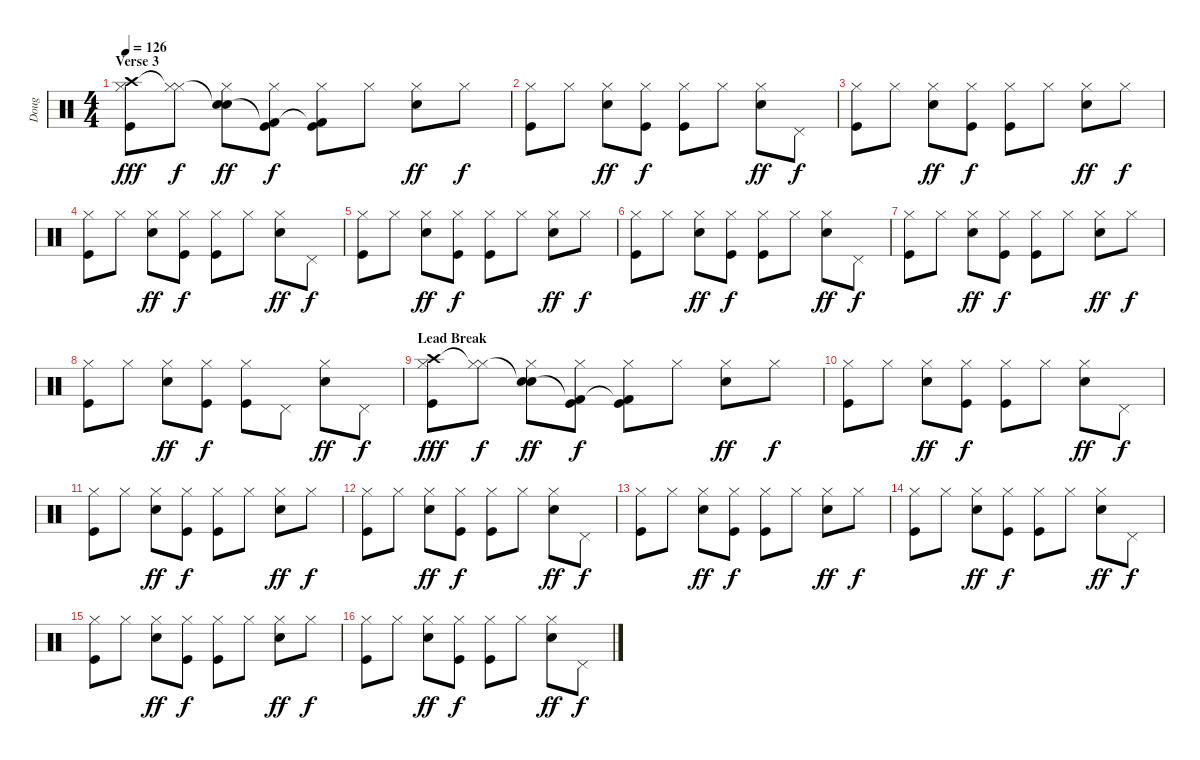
\track ("Doug" "Doug") {instrument percussion}
\staff {score}
\articulation defaults
\ts (4 4)
\section ("" "Verse 3")
\tempo 126
\clef neutral
\ks c
("Crash high (hit)" "Hi-Hat (closed)" "Kick (hit)").8{dy fff} ("Hi-Hat (closed)"{t} "Hi-Hat (closed)").8{dy f} ("Snare (hit) 2"{t} "Hi-Hat (closed)" "Snare (hit) 2").8{dy ff} ("Kick (hit) 2"{t} "Hi-Hat (closed)" "Kick (hit)").8{dy f} ("Kick (hit) 2"{t} "Hi-Hat (closed)" "Kick (hit)").8 "Hi-Hat (closed)".8 ("Hi-Hat (closed)" "Snare (hit) 2").8{dy ff} "Hi-Hat (closed)".8{dy f} |
("Hi-Hat (closed)" "Kick (hit)").8 "Hi-Hat (closed)".8 ("Hi-Hat (closed)" "Snare (hit) 2").8{dy ff} ("Hi-Hat (closed)" "Kick (hit)").8{dy f} ("Hi-Hat (closed)" "Kick (hit)").8 "Hi-Hat (closed)".8 ("Hi-Hat (closed)" "Snare (hit) 2").8{dy ff} "Pedal Hi-Hat (hit)".8{dy f} |
("Hi-Hat (closed)" "Kick (hit)").8 "Hi-Hat (closed)".8 ("Hi-Hat (closed)" "Snare (hit) 2").8{dy ff} ("Hi-Hat (closed)" "Kick (hit)").8{dy f} ("Hi-Hat (closed)" "Kick (hit)").8 "Hi-Hat (closed)".8 ("Hi-Hat (closed)" "Snare (hit) 2").8{dy ff} "Hi-Hat (closed)".8{dy f} |
("Hi-Hat (closed)" "Kick (hit)").8 "Hi-Hat (closed)".8 ("Hi-Hat (closed)" "Snare (hit) 2").8{dy ff} ("Hi-Hat (closed)" "Kick (hit)").8{dy f} ("Hi-Hat (closed)" "Kick (hit)").8 "Hi-Hat (closed)".8 ("Hi-Hat (closed)" "Snare (hit) 2").8{dy ff} "Pedal Hi-Hat (hit)".8{dy f} |
("Hi-Hat (closed)" "Kick (hit)").8 "Hi-Hat (closed)".8 ("Hi-Hat (closed)" "Snare (hit) 2").8{dy ff} ("Hi-Hat (closed)" "Kick (hit)").8{dy f} ("Hi-Hat (closed)" "Kick (hit)").8 "Hi-Hat (closed)".8 ("Hi-Hat (closed)" "Snare (hit) 2").8{dy ff} "Hi-Hat (closed)".8{dy f} |
("Hi-Hat (closed)" "Kick (hit)").8 "Hi-Hat (closed)".8 ("Hi-Hat (closed)" "Snare (hit) 2").8{dy ff} ("Hi-Hat (closed)" "Kick (hit)").8{dy f} ("Hi-Hat (closed)" "Kick (hit)").8 "Hi-Hat (closed)".8 ("Hi-Hat (closed)" "Snare (hit) 2").8{dy ff} "Pedal Hi-Hat (hit)".8{dy f} |
("Hi-Hat (closed)" "Kick (hit)").8 "Hi-Hat (closed)".8 ("Hi-Hat (closed)" "Snare (hit) 2").8{dy ff} ("Hi-Hat (closed)" "Kick (hit)").8{dy f} ("Hi-Hat (closed)" "Kick (hit)").8 "Hi-Hat (closed)".8 ("Hi-Hat (closed)" "Snare (hit) 2").8{dy ff} "Hi-Hat (closed)".8{dy f} |
("Hi-Hat (closed)" "Kick (hit)").8 "Hi-Hat (closed)".8 ("Hi-Hat (closed)" "Snare (hit) 2").8{dy ff} ("Hi-Hat (closed)" "Kick (hit)").8{dy f} ("Hi-Hat (closed)" "Kick (hit)").8 "Pedal Hi-Hat (hit)".8 ("Hi-Hat (closed)" "Snare (hit) 2").8{dy ff} "Pedal Hi-Hat (hit)".8{dy f} |
\section ("" "Lead Break")
("Crash high (hit)" "Hi-Hat (closed)" "Kick (hit)").8{dy fff} ("Hi-Hat (closed)"{t} "Hi-Hat (closed)").8{dy f} ("Snare (hit) 2"{t} "Hi-Hat (closed)" "Snare (hit) 2").8{dy ff} ("Kick (hit) 2"{t} "Hi-Hat (closed)" "Kick (hit)").8{dy f} ("Kick (hit) 2"{t} "Hi-Hat (closed)" "Kick (hit)").8 "Hi-Hat (closed)".8 ("Hi-Hat (closed)" "Snare (hit) 2").8{dy ff} "Hi-Hat (closed)".8{dy f} |
("Hi-Hat (closed)" "Kick (hit)").8 "Hi-Hat (closed)".8 ("Hi-Hat (closed)" "Snare (hit) 2").8{dy ff} ("Hi-Hat (closed)" "Kick (hit)").8{dy f} ("Hi-Hat (closed)" "Kick (hit)").8 "Hi-Hat (closed)".8 ("Hi-Hat (closed)" "Snare (hit) 2").8{dy ff} "Pedal Hi-Hat (hit)".8{dy f} |
("Hi-Hat (closed)" "Kick (hit)").8 "Hi-Hat (closed)".8 ("Hi-Hat (closed)" "Snare (hit) 2").8{dy ff} ("Hi-Hat (closed)" "Kick (hit)").8{dy f} ("Hi-Hat (closed)" "Kick (hit)").8 "Hi-Hat (closed)".8 ("Hi-Hat (closed)" "Snare (hit) 2").8{dy ff} "Hi-Hat (closed)".8{dy f} |
("Hi-Hat (closed)" "Kick (hit)").8 "Hi-Hat (closed)".8 ("Hi-Hat (closed)" "Snare (hit) 2").8{dy ff} ("Hi-Hat (closed)" "Kick (hit)").8{dy f} ("Hi-Hat (closed)" "Kick (hit)").8 "Hi-Hat (closed)".8 ("Hi-Hat (closed)" "Snare (hit) 2").8{dy ff} "Pedal Hi-Hat (hit)".8{dy f} |
("Hi-Hat (closed)" "Kick (hit)").8 "Hi-Hat (closed)".8 ("Hi-Hat (closed)" "Snare (hit) 2").8{dy ff} ("Hi-Hat (closed)" "Kick (hit)").8{dy f} ("Hi-Hat (closed)" "Kick (hit)").8 "Hi-Hat (closed)".8 ("Hi-Hat (closed)" "Snare (hit) 2").8{dy ff} "Hi-Hat (closed)".8{dy f} |
("Hi-Hat (closed)" "Kick (hit)").8 "Hi-Hat (closed)".8 ("Hi-Hat (closed)" "Snare (hit) 2").8{dy ff} ("Hi-Hat (closed)" "Kick (hit)").8{dy f} ("Hi-Hat (closed)" "Kick (hit)").8 "Hi-Hat (closed)".8 ("Hi-Hat (closed)" "Snare (hit) 2").8{dy ff} "Pedal Hi-Hat (hit)".8{dy f} |
("Hi-Hat (closed)" "Kick (hit)").8 "Hi-Hat (closed)".8 ("Hi-Hat (closed)" "Snare (hit) 2").8{dy ff} ("Hi-Hat (closed)" "Kick (hit)").8{dy f} ("Hi-Hat (closed)" "Kick (hit)").8 "Hi-Hat (closed)".8 ("Hi-Hat (closed)" "Snare (hit) 2").8{dy ff} "Hi-Hat (closed)".8{dy f} |
("Hi-Hat (closed)" "Kick (hit)").8 "Hi-Hat (closed)".8 ("Hi-Hat (closed)" "Snare (hit) 2").8{dy ff} ("Hi-Hat (closed)" "Kick (hit)").8{dy f} ("Hi-Hat (closed)" "Kick (hit)").8 "Hi-Hat (closed)".8 ("Hi-Hat (closed)" "Snare (hit) 2").8{dy ff} "Pedal Hi-Hat (hit)".8{dy f}
